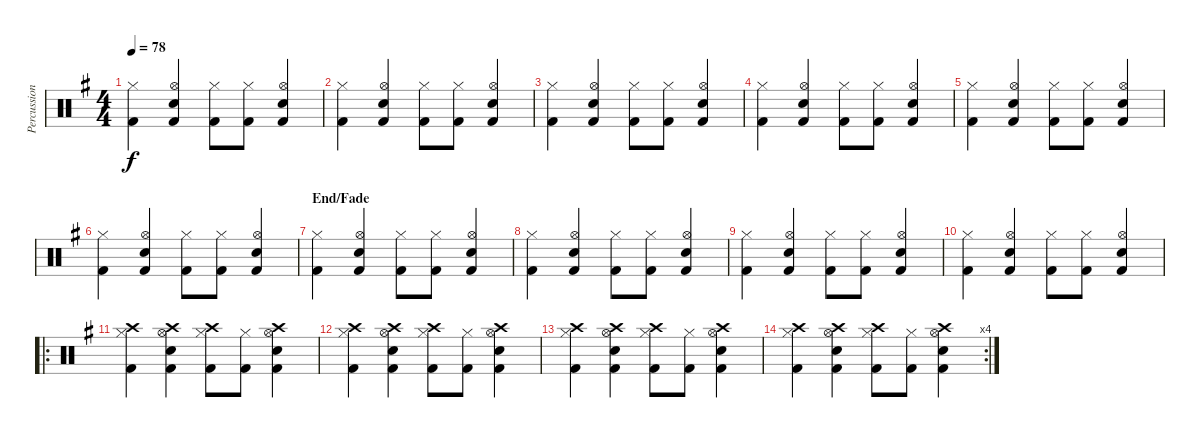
\track ("Percussion" "Percussion") {instrument percussion}
\staff {score}
\articulation defaults
\ts (4 4)
\tempo 78
\clef neutral
\ks g
("Hi-Hat (closed)" "Kick (hit) 2").4{dy f} ("Hi-Hat (open)" "Snare (hit) 2" "Kick (hit) 2").4 ("Hi-Hat (closed)" "Kick (hit) 2").8 ("Hi-Hat (closed)" "Kick (hit) 2").8 ("Hi-Hat (open)" "Snare (hit) 2" "Kick (hit) 2").4 |
("Hi-Hat (closed)" "Kick (hit) 2").4 ("Hi-Hat (open)" "Snare (hit) 2" "Kick (hit) 2").4 ("Hi-Hat (closed)" "Kick (hit) 2").8 ("Hi-Hat (closed)" "Kick (hit) 2").8 ("Hi-Hat (open)" "Snare (hit) 2" "Kick (hit) 2").4 |
("Hi-Hat (closed)" "Kick (hit) 2").4 ("Hi-Hat (open)" "Snare (hit) 2" "Kick (hit) 2").4 ("Hi-Hat (closed)" "Kick (hit) 2").8 ("Hi-Hat (closed)" "Kick (hit) 2").8 ("Hi-Hat (open)" "Snare (hit) 2" "Kick (hit) 2").4 |
("Hi-Hat (closed)" "Kick (hit) 2").4 ("Hi-Hat (open)" "Snare (hit) 2" "Kick (hit) 2").4 ("Hi-Hat (closed)" "Kick (hit) 2").8 ("Hi-Hat (closed)" "Kick (hit) 2").8 ("Hi-Hat (open)" "Snare (hit) 2" "Kick (hit) 2").4 |
("Hi-Hat (closed)" "Kick (hit) 2").4 ("Hi-Hat (open)" "Snare (hit) 2" "Kick (hit) 2").4 ("Hi-Hat (closed)" "Kick (hit) 2").8 ("Hi-Hat (closed)" "Kick (hit) 2").8 ("Hi-Hat (open)" "Snare (hit) 2" "Kick (hit) 2").4 |
("Hi-Hat (closed)" "Kick (hit) 2").4 ("Hi-Hat (open)" "Snare (hit) 2" "Kick (hit) 2").4 ("Hi-Hat (closed)" "Kick (hit) 2").8 ("Hi-Hat (closed)" "Kick (hit) 2").8 ("Hi-Hat (open)" "Snare (hit) 2" "Kick (hit) 2").4 |
\section ("" "End/Fade")
("Hi-Hat (closed)" "Kick (hit) 2").4 ("Hi-Hat (open)" "Snare (hit) 2" "Kick (hit) 2").4 ("Hi-Hat (closed)" "Kick (hit) 2").8 ("Hi-Hat (closed)" "Kick (hit) 2").8 ("Hi-Hat (open)" "Snare (hit) 2" "Kick (hit) 2").4 |
("Hi-Hat (closed)" "Kick (hit) 2").4 ("Hi-Hat (open)" "Snare (hit) 2" "Kick (hit) 2").4 ("Hi-Hat (closed)" "Kick (hit) 2").8 ("Hi-Hat (closed)" "Kick (hit) 2").8 ("Hi-Hat (open)" "Snare (hit) 2" "Kick (hit) 2").4 |
("Hi-Hat (closed)" "Kick (hit) 2").4 ("Hi-Hat (open)" "Snare (hit) 2" "Kick (hit) 2").4 ("Hi-Hat (closed)" "Kick (hit) 2").8 ("Hi-Hat (closed)" "Kick (hit) 2").8 ("Hi-Hat (open)" "Snare (hit) 2" "Kick (hit) 2").4 |
("Hi-Hat (closed)" "Kick (hit) 2").4 ("Hi-Hat (open)" "Snare (hit) 2" "Kick (hit) 2").4 ("Hi-Hat (closed)" "Kick (hit) 2").8 ("Hi-Hat (closed)" "Kick (hit) 2").8 ("Hi-Hat (open)" "Snare (hit) 2" "Kick (hit) 2").4 |
\ro
("Crash high (hit)" "Hi-Hat (closed)" "Kick (hit) 2").4 ("Crash high (hit)" "Hi-Hat (open)" "Snare (hit) 2" "Kick (hit) 2").4 ("Crash high (hit)" "Hi-Hat (closed)" "Kick (hit) 2").8 ("Hi-Hat (closed)" "Kick (hit) 2").8 ("Crash high (hit)" "Hi-Hat (open)" "Snare (hit) 2" "Kick (hit) 2").4 |
("Crash high (hit)" "Hi-Hat (closed)" "Kick (hit) 2").4 ("Crash high (hit)" "Hi-Hat (open)" "Snare (hit) 2" "Kick (hit) 2").4 ("Crash high (hit)" "Hi-Hat (closed)" "Kick (hit) 2").8 ("Hi-Hat (closed)" "Kick (hit) 2").8 ("Crash high (hit)" "Hi-Hat (open)" "Snare (hit) 2" "Kick (hit) 2").4 |
("Crash high (hit)" "Hi-Hat (closed)" "Kick (hit) 2").4 ("Crash high (hit)" "Hi-Hat (open)" "Snare (hit) 2" "Kick (hit) 2").4 ("Crash high (hit)" "Hi-Hat (closed)" "Kick (hit) 2").8 ("Hi-Hat (closed)" "Kick (hit) 2").8 ("Crash high (hit)" "Hi-Hat (open)" "Snare (hit) 2" "Kick (hit) 2").4 |
\rc 4
("Crash high (hit)" "Hi-Hat (closed)" "Kick (hit) 2").4 ("Crash high (hit)" "Hi-Hat (open)" "Snare (hit) 2" "Kick (hit) 2").4 ("Crash high (hit)" "Hi-Hat (closed)" "Kick (hit) 2").8 ("Hi-Hat (closed)" "Kick (hit) 2").8 ("Crash high (hit)" "Hi-Hat (open)" "Snare (hit) 2" "Kick (hit) 2").4
